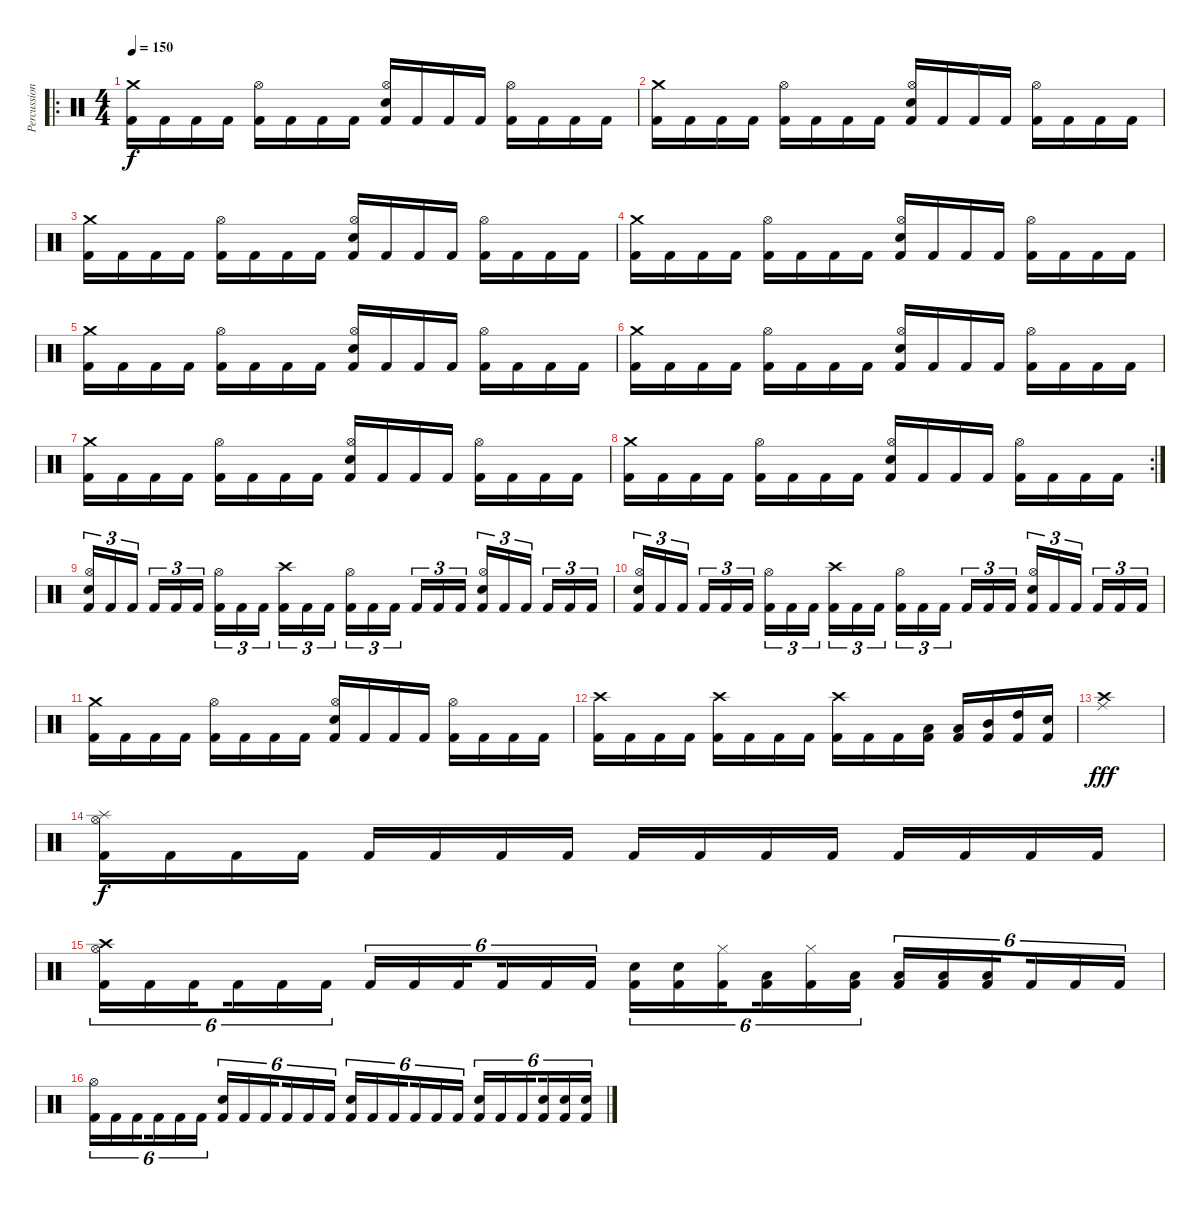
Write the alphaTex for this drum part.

\track ("Percussion" "Percussion") {instrument percussion}
\staff {score}
\articulation defaults
\ro
\ts (4 4)
\tempo 150
\clef neutral
\ks c
("Crash medium (hit)" "Kick (hit) 2").16{dy f} "Kick (hit) 2".16 "Kick (hit) 2".16 "Kick (hit) 2".16 ("Hi-Hat (open)" "Kick (hit) 2").16 "Kick (hit) 2".16 "Kick (hit) 2".16 "Kick (hit) 2".16 ("Hi-Hat (open)" "Snare (hit) 2" "Kick (hit) 2").16 "Kick (hit) 2".16 "Kick (hit) 2".16 "Kick (hit) 2".16 ("Hi-Hat (open)" "Kick (hit) 2").16 "Kick (hit) 2".16 "Kick (hit) 2".16 "Kick (hit) 2".16 |
("Crash medium (hit)" "Kick (hit) 2").16 "Kick (hit) 2".16 "Kick (hit) 2".16 "Kick (hit) 2".16 ("Hi-Hat (open)" "Kick (hit) 2").16 "Kick (hit) 2".16 "Kick (hit) 2".16 "Kick (hit) 2".16 ("Hi-Hat (open)" "Snare (hit) 2" "Kick (hit) 2").16 "Kick (hit) 2".16 "Kick (hit) 2".16 "Kick (hit) 2".16 ("Hi-Hat (open)" "Kick (hit) 2").16 "Kick (hit) 2".16 "Kick (hit) 2".16 "Kick (hit) 2".16 |
("Crash medium (hit)" "Kick (hit) 2").16 "Kick (hit) 2".16 "Kick (hit) 2".16 "Kick (hit) 2".16 ("Hi-Hat (open)" "Kick (hit) 2").16 "Kick (hit) 2".16 "Kick (hit) 2".16 "Kick (hit) 2".16 ("Hi-Hat (open)" "Snare (hit) 2" "Kick (hit) 2").16 "Kick (hit) 2".16 "Kick (hit) 2".16 "Kick (hit) 2".16 ("Hi-Hat (open)" "Kick (hit) 2").16 "Kick (hit) 2".16 "Kick (hit) 2".16 "Kick (hit) 2".16 |
("Crash medium (hit)" "Kick (hit) 2").16 "Kick (hit) 2".16 "Kick (hit) 2".16 "Kick (hit) 2".16 ("Hi-Hat (open)" "Kick (hit) 2").16 "Kick (hit) 2".16 "Kick (hit) 2".16 "Kick (hit) 2".16 ("Hi-Hat (open)" "Snare (hit) 2" "Kick (hit) 2").16 "Kick (hit) 2".16 "Kick (hit) 2".16 "Kick (hit) 2".16 ("Hi-Hat (open)" "Kick (hit) 2").16 "Kick (hit) 2".16 "Kick (hit) 2".16 "Kick (hit) 2".16 |
("Crash medium (hit)" "Kick (hit) 2").16 "Kick (hit) 2".16 "Kick (hit) 2".16 "Kick (hit) 2".16 ("Hi-Hat (open)" "Kick (hit) 2").16 "Kick (hit) 2".16 "Kick (hit) 2".16 "Kick (hit) 2".16 ("Hi-Hat (open)" "Snare (hit) 2" "Kick (hit) 2").16 "Kick (hit) 2".16 "Kick (hit) 2".16 "Kick (hit) 2".16 ("Hi-Hat (open)" "Kick (hit) 2").16 "Kick (hit) 2".16 "Kick (hit) 2".16 "Kick (hit) 2".16 |
("Crash medium (hit)" "Kick (hit) 2").16 "Kick (hit) 2".16 "Kick (hit) 2".16 "Kick (hit) 2".16 ("Hi-Hat (open)" "Kick (hit) 2").16 "Kick (hit) 2".16 "Kick (hit) 2".16 "Kick (hit) 2".16 ("Hi-Hat (open)" "Snare (hit) 2" "Kick (hit) 2").16 "Kick (hit) 2".16 "Kick (hit) 2".16 "Kick (hit) 2".16 ("Hi-Hat (open)" "Kick (hit) 2").16 "Kick (hit) 2".16 "Kick (hit) 2".16 "Kick (hit) 2".16 |
("Crash medium (hit)" "Kick (hit) 2").16 "Kick (hit) 2".16 "Kick (hit) 2".16 "Kick (hit) 2".16 ("Hi-Hat (open)" "Kick (hit) 2").16 "Kick (hit) 2".16 "Kick (hit) 2".16 "Kick (hit) 2".16 ("Hi-Hat (open)" "Snare (hit) 2" "Kick (hit) 2").16 "Kick (hit) 2".16 "Kick (hit) 2".16 "Kick (hit) 2".16 ("Hi-Hat (open)" "Kick (hit) 2").16 "Kick (hit) 2".16 "Kick (hit) 2".16 "Kick (hit) 2".16 |
\rc 2
("Crash medium (hit)" "Kick (hit) 2").16 "Kick (hit) 2".16 "Kick (hit) 2".16 "Kick (hit) 2".16 ("Hi-Hat (open)" "Kick (hit) 2").16 "Kick (hit) 2".16 "Kick (hit) 2".16 "Kick (hit) 2".16 ("Hi-Hat (open)" "Snare (hit) 2" "Kick (hit) 2").16 "Kick (hit) 2".16 "Kick (hit) 2".16 "Kick (hit) 2".16 ("Hi-Hat (open)" "Kick (hit) 2").16 "Kick (hit) 2".16 "Kick (hit) 2".16 "Kick (hit) 2".16 |
("Hi-Hat (open)" "Snare (hit) 2" "Kick (hit) 2").16{tu (3 2)} "Kick (hit) 2".16{tu (3 2)} "Kick (hit) 2".16{tu (3 2) beam splitsecondary} "Kick (hit) 2".16{tu (3 2)} "Kick (hit) 2".16{tu (3 2)} "Kick (hit) 2".16{tu (3 2)} ("Hi-Hat (open)" "Kick (hit) 2").16{tu (3 2)} "Kick (hit) 2".16{tu (3 2)} "Kick (hit) 2".16{tu (3 2) beam splitsecondary} ("Crash high (hit)" "Kick (hit) 2").16{tu (3 2)} "Kick (hit) 2".16{tu (3 2)} "Kick (hit) 2".16{tu (3 2)} ("Hi-Hat (open)" "Kick (hit) 2").16{tu (3 2)} "Kick (hit) 2".16{tu (3 2)} "Kick (hit) 2".16{tu (3 2) beam splitsecondary} "Kick (hit) 2".16{tu (3 2)} "Kick (hit) 2".16{tu (3 2)} "Kick (hit) 2".16{tu (3 2)} ("Hi-Hat (open)" "Snare (hit) 2" "Kick (hit) 2").16{tu (3 2)} "Kick (hit) 2".16{tu (3 2)} "Kick (hit) 2".16{tu (3 2) beam splitsecondary} "Kick (hit) 2".16{tu (3 2)} "Kick (hit) 2".16{tu (3 2)} "Kick (hit) 2".16{tu (3 2)} |
("Hi-Hat (open)" "Snare (hit) 2" "Kick (hit) 2").16{tu (3 2)} "Kick (hit) 2".16{tu (3 2)} "Kick (hit) 2".16{tu (3 2) beam splitsecondary} "Kick (hit) 2".16{tu (3 2)} "Kick (hit) 2".16{tu (3 2)} "Kick (hit) 2".16{tu (3 2)} ("Hi-Hat (open)" "Kick (hit) 2").16{tu (3 2)} "Kick (hit) 2".16{tu (3 2)} "Kick (hit) 2".16{tu (3 2) beam splitsecondary} ("Crash high (hit)" "Kick (hit) 2").16{tu (3 2)} "Kick (hit) 2".16{tu (3 2)} "Kick (hit) 2".16{tu (3 2)} ("Hi-Hat (open)" "Kick (hit) 2").16{tu (3 2)} "Kick (hit) 2".16{tu (3 2)} "Kick (hit) 2".16{tu (3 2) beam splitsecondary} "Kick (hit) 2".16{tu (3 2)} "Kick (hit) 2".16{tu (3 2)} "Kick (hit) 2".16{tu (3 2)} ("Hi-Hat (open)" "Snare (hit) 2" "Kick (hit) 2").16{tu (3 2)} "Kick (hit) 2".16{tu (3 2)} "Kick (hit) 2".16{tu (3 2) beam splitsecondary} "Kick (hit) 2".16{tu (3 2)} "Kick (hit) 2".16{tu (3 2)} "Kick (hit) 2".16{tu (3 2)} |
("Crash medium (hit)" "Kick (hit) 2").16 "Kick (hit) 2".16 "Kick (hit) 2".16 "Kick (hit) 2".16 ("Hi-Hat (open)" "Kick (hit) 2").16 "Kick (hit) 2".16 "Kick (hit) 2".16 "Kick (hit) 2".16 ("Hi-Hat (open)" "Snare (hit) 2" "Kick (hit) 2").16 "Kick (hit) 2".16 "Kick (hit) 2".16 "Kick (hit) 2".16 ("Hi-Hat (open)" "Kick (hit) 2").16 "Kick (hit) 2".16 "Kick (hit) 2".16 "Kick (hit) 2".16 |
("Crash high (hit)" "Kick (hit) 2").16 "Kick (hit) 2".16 "Kick (hit) 2".16 "Kick (hit) 2".16 ("Crash high (hit)" "Kick (hit) 2").16 "Kick (hit) 2".16 "Kick (hit) 2".16 "Kick (hit) 2".16 ("Crash high (hit)" "Kick (hit) 2").16 "Kick (hit) 2".16 "Kick (hit) 2".16 ("Low Tom (hit)" "Kick (hit) 2").16 ("Low Tom (hit)" "Kick (hit) 2").16 ("Mid Tom (hit)" "Kick (hit) 2").16 ("High Tom (hit)" "Kick (hit) 2").16 ("Snare (hit) 2" "Kick (hit) 2").16 |
("Crash high (hit)" "Ride (middle)").1{dy fff} |
("Splash (hit)" "Hi-Hat (open)" "Kick (hit) 2").16{dy f} "Kick (hit) 2".16 "Kick (hit) 2".16 "Kick (hit) 2".16 "Kick (hit) 2".16 "Kick (hit) 2".16 "Kick (hit) 2".16 "Kick (hit) 2".16 "Kick (hit) 2".16 "Kick (hit) 2".16 "Kick (hit) 2".16 "Kick (hit) 2".16 "Kick (hit) 2".16 "Kick (hit) 2".16 "Kick (hit) 2".16 "Kick (hit) 2".16 |
("Crash high (hit)" "Hi-Hat (open)" "Kick (hit) 2").16{tu (6 4)} "Kick (hit) 2".16{tu (6 4)} "Kick (hit) 2".16{tu (6 4) beam splitsecondary} "Kick (hit) 2".16{tu (6 4)} "Kick (hit) 2".16{tu (6 4)} "Kick (hit) 2".16{tu (6 4)} "Kick (hit) 2".16{tu (6 4)} "Kick (hit) 2".16{tu (6 4)} "Kick (hit) 2".16{tu (6 4) beam splitsecondary} "Kick (hit) 2".16{tu (6 4)} "Kick (hit) 2".16{tu (6 4)} "Kick (hit) 2".16{tu (6 4)} ("Snare (hit) 2" "Kick (hit) 2").16{tu (6 4)} ("Snare (hit) 2" "Kick (hit) 2").16{tu (6 4)} ("Hi-Hat (closed)" "Kick (hit) 2").16{tu (6 4) beam splitsecondary} ("Low Tom (hit)" "Kick (hit) 2").16{tu (6 4)} ("Hi-Hat (closed)" "Kick (hit) 2").16{tu (6 4)} ("Low Tom (hit)" "Kick (hit) 2").16{tu (6 4)} ("Low Tom (hit)" "Kick (hit) 2").16{tu (6 4)} ("Low Tom (hit)" "Kick (hit) 2").16{tu (6 4)} ("Low Tom (hit)" "Kick (hit) 2").16{tu (6 4) beam splitsecondary} "Kick (hit) 2".16{tu (6 4)} "Kick (hit) 2".16{tu (6 4)} "Kick (hit) 2".16{tu (6 4)} |
("Hi-Hat (open)" "Kick (hit) 2").16{tu (6 4)} "Kick (hit) 2".16{tu (6 4)} "Kick (hit) 2".16{tu (6 4) beam splitsecondary} "Kick (hit) 2".16{tu (6 4)} "Kick (hit) 2".16{tu (6 4)} "Kick (hit) 2".16{tu (6 4)} ("Snare (hit) 2" "Kick (hit) 2").16{tu (6 4)} "Kick (hit) 2".16{tu (6 4)} "Kick (hit) 2".16{tu (6 4) beam splitsecondary} "Kick (hit) 2".16{tu (6 4)} "Kick (hit) 2".16{tu (6 4)} "Kick (hit) 2".16{tu (6 4)} ("Snare (hit) 2" "Kick (hit) 2").16{tu (6 4)} "Kick (hit) 2".16{tu (6 4)} "Kick (hit) 2".16{tu (6 4) beam splitsecondary} "Kick (hit) 2".16{tu (6 4)} "Kick (hit) 2".16{tu (6 4)} "Kick (hit) 2".16{tu (6 4)} ("Snare (hit) 2" "Kick (hit) 2").16{tu (6 4)} "Kick (hit) 2".16{tu (6 4)} "Kick (hit) 2".16{tu (6 4) beam splitsecondary} ("Snare (hit) 2" "Kick (hit) 2").16{tu (6 4)} ("Snare (hit) 2" "Kick (hit) 2").16{tu (6 4)} ("Snare (hit) 2" "Kick (hit) 2").16{tu (6 4)}
